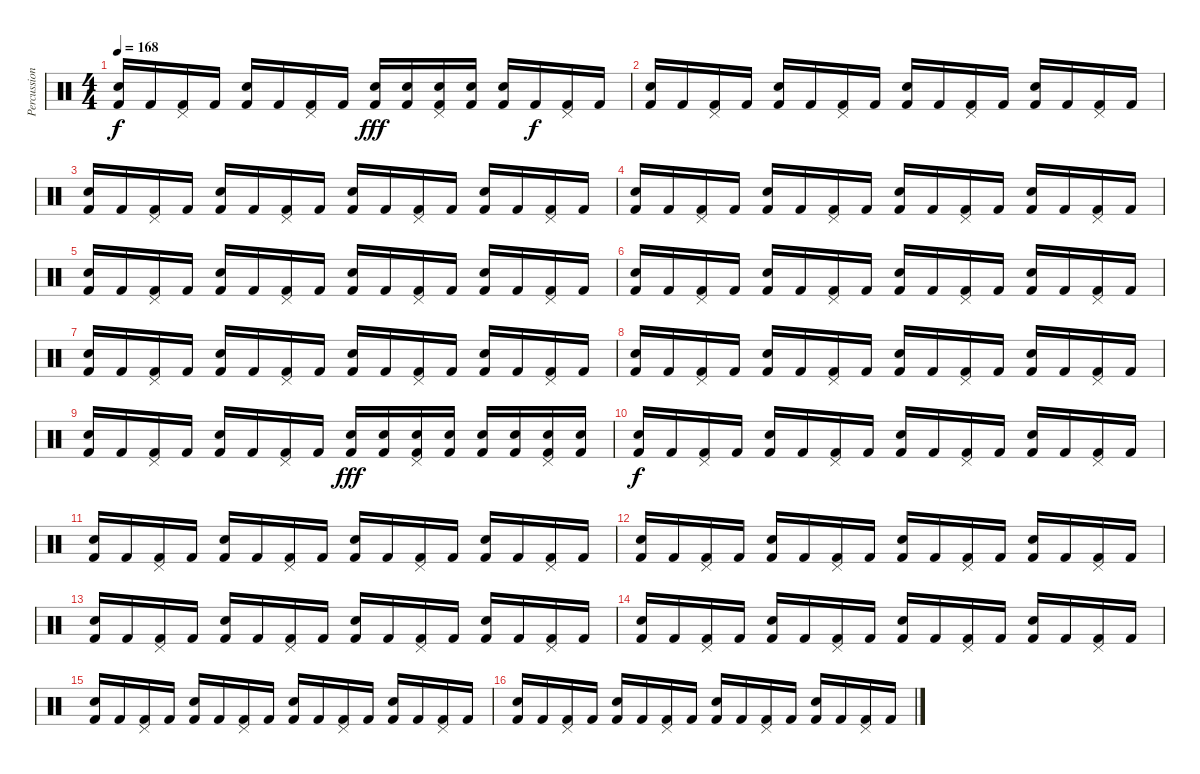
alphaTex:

\track ("Percussion" "Percussion") {instrument percussion}
\staff {score}
\articulation defaults
\ts (4 4)
\tempo 168
\clef neutral
\ks c
("Electric Snare (hit)" "Kick (hit) 2").16{dy f} "Kick (hit) 2".16 ("Pedal Hi-Hat (hit)" "Kick (hit) 2").16 "Kick (hit) 2".16 ("Electric Snare (hit)" "Kick (hit) 2").16 "Kick (hit) 2".16 ("Pedal Hi-Hat (hit)" "Kick (hit) 2").16 "Kick (hit) 2".16 ("Electric Snare (hit)" "Kick (hit) 2").16{dy fff} ("Electric Snare (hit)" "Kick (hit) 2").16 ("Pedal Hi-Hat (hit)" "Electric Snare (hit)" "Kick (hit) 2").16 ("Electric Snare (hit)" "Kick (hit) 2").16 ("Electric Snare (hit)" "Kick (hit) 2").16 "Kick (hit) 2".16{dy f} ("Pedal Hi-Hat (hit)" "Kick (hit) 2").16 "Kick (hit) 2".16 |
("Electric Snare (hit)" "Kick (hit) 2").16 "Kick (hit) 2".16 ("Pedal Hi-Hat (hit)" "Kick (hit) 2").16 "Kick (hit) 2".16 ("Electric Snare (hit)" "Kick (hit) 2").16 "Kick (hit) 2".16 ("Pedal Hi-Hat (hit)" "Kick (hit) 2").16 "Kick (hit) 2".16 ("Electric Snare (hit)" "Kick (hit) 2").16 "Kick (hit) 2".16 ("Pedal Hi-Hat (hit)" "Kick (hit) 2").16 "Kick (hit) 2".16 ("Electric Snare (hit)" "Kick (hit) 2").16 "Kick (hit) 2".16 ("Pedal Hi-Hat (hit)" "Kick (hit) 2").16 "Kick (hit) 2".16 |
("Electric Snare (hit)" "Kick (hit) 2").16 "Kick (hit) 2".16 ("Pedal Hi-Hat (hit)" "Kick (hit) 2").16 "Kick (hit) 2".16 ("Electric Snare (hit)" "Kick (hit) 2").16 "Kick (hit) 2".16 ("Pedal Hi-Hat (hit)" "Kick (hit) 2").16 "Kick (hit) 2".16 ("Electric Snare (hit)" "Kick (hit) 2").16 "Kick (hit) 2".16 ("Pedal Hi-Hat (hit)" "Kick (hit) 2").16 "Kick (hit) 2".16 ("Electric Snare (hit)" "Kick (hit) 2").16 "Kick (hit) 2".16 ("Pedal Hi-Hat (hit)" "Kick (hit) 2").16 "Kick (hit) 2".16 |
("Electric Snare (hit)" "Kick (hit) 2").16 "Kick (hit) 2".16 ("Pedal Hi-Hat (hit)" "Kick (hit) 2").16 "Kick (hit) 2".16 ("Electric Snare (hit)" "Kick (hit) 2").16 "Kick (hit) 2".16 ("Pedal Hi-Hat (hit)" "Kick (hit) 2").16 "Kick (hit) 2".16 ("Electric Snare (hit)" "Kick (hit) 2").16 "Kick (hit) 2".16 ("Pedal Hi-Hat (hit)" "Kick (hit) 2").16 "Kick (hit) 2".16 ("Electric Snare (hit)" "Kick (hit) 2").16 "Kick (hit) 2".16 ("Pedal Hi-Hat (hit)" "Kick (hit) 2").16 "Kick (hit) 2".16 |
("Electric Snare (hit)" "Kick (hit) 2").16 "Kick (hit) 2".16 ("Pedal Hi-Hat (hit)" "Kick (hit) 2").16 "Kick (hit) 2".16 ("Electric Snare (hit)" "Kick (hit) 2").16 "Kick (hit) 2".16 ("Pedal Hi-Hat (hit)" "Kick (hit) 2").16 "Kick (hit) 2".16 ("Electric Snare (hit)" "Kick (hit) 2").16 "Kick (hit) 2".16 ("Pedal Hi-Hat (hit)" "Kick (hit) 2").16 "Kick (hit) 2".16 ("Electric Snare (hit)" "Kick (hit) 2").16 "Kick (hit) 2".16 ("Pedal Hi-Hat (hit)" "Kick (hit) 2").16 "Kick (hit) 2".16 |
("Electric Snare (hit)" "Kick (hit) 2").16 "Kick (hit) 2".16 ("Pedal Hi-Hat (hit)" "Kick (hit) 2").16 "Kick (hit) 2".16 ("Electric Snare (hit)" "Kick (hit) 2").16 "Kick (hit) 2".16 ("Pedal Hi-Hat (hit)" "Kick (hit) 2").16 "Kick (hit) 2".16 ("Electric Snare (hit)" "Kick (hit) 2").16 "Kick (hit) 2".16 ("Pedal Hi-Hat (hit)" "Kick (hit) 2").16 "Kick (hit) 2".16 ("Electric Snare (hit)" "Kick (hit) 2").16 "Kick (hit) 2".16 ("Pedal Hi-Hat (hit)" "Kick (hit) 2").16 "Kick (hit) 2".16 |
("Electric Snare (hit)" "Kick (hit) 2").16 "Kick (hit) 2".16 ("Pedal Hi-Hat (hit)" "Kick (hit) 2").16 "Kick (hit) 2".16 ("Electric Snare (hit)" "Kick (hit) 2").16 "Kick (hit) 2".16 ("Pedal Hi-Hat (hit)" "Kick (hit) 2").16 "Kick (hit) 2".16 ("Electric Snare (hit)" "Kick (hit) 2").16 "Kick (hit) 2".16 ("Pedal Hi-Hat (hit)" "Kick (hit) 2").16 "Kick (hit) 2".16 ("Electric Snare (hit)" "Kick (hit) 2").16 "Kick (hit) 2".16 ("Pedal Hi-Hat (hit)" "Kick (hit) 2").16 "Kick (hit) 2".16 |
("Electric Snare (hit)" "Kick (hit) 2").16 "Kick (hit) 2".16 ("Pedal Hi-Hat (hit)" "Kick (hit) 2").16 "Kick (hit) 2".16 ("Electric Snare (hit)" "Kick (hit) 2").16 "Kick (hit) 2".16 ("Pedal Hi-Hat (hit)" "Kick (hit) 2").16 "Kick (hit) 2".16 ("Electric Snare (hit)" "Kick (hit) 2").16 "Kick (hit) 2".16 ("Pedal Hi-Hat (hit)" "Kick (hit) 2").16 "Kick (hit) 2".16 ("Electric Snare (hit)" "Kick (hit) 2").16 "Kick (hit) 2".16 ("Pedal Hi-Hat (hit)" "Kick (hit) 2").16 "Kick (hit) 2".16 |
("Electric Snare (hit)" "Kick (hit) 2").16 "Kick (hit) 2".16 ("Pedal Hi-Hat (hit)" "Kick (hit) 2").16 "Kick (hit) 2".16 ("Electric Snare (hit)" "Kick (hit) 2").16 "Kick (hit) 2".16 ("Pedal Hi-Hat (hit)" "Kick (hit) 2").16 "Kick (hit) 2".16 ("Electric Snare (hit)" "Kick (hit) 2").16{dy fff} ("Electric Snare (hit)" "Kick (hit) 2").16 ("Pedal Hi-Hat (hit)" "Electric Snare (hit)" "Kick (hit) 2").16 ("Electric Snare (hit)" "Kick (hit) 2").16 ("Electric Snare (hit)" "Kick (hit) 2").16 ("Electric Snare (hit)" "Kick (hit) 2").16 ("Pedal Hi-Hat (hit)" "Electric Snare (hit)" "Kick (hit) 2").16 ("Electric Snare (hit)" "Kick (hit) 2").16 |
("Electric Snare (hit)" "Kick (hit) 2").16{dy f} "Kick (hit) 2".16 ("Pedal Hi-Hat (hit)" "Kick (hit) 2").16 "Kick (hit) 2".16 ("Electric Snare (hit)" "Kick (hit) 2").16 "Kick (hit) 2".16 ("Pedal Hi-Hat (hit)" "Kick (hit) 2").16 "Kick (hit) 2".16 ("Electric Snare (hit)" "Kick (hit) 2").16 "Kick (hit) 2".16 ("Pedal Hi-Hat (hit)" "Kick (hit) 2").16 "Kick (hit) 2".16 ("Electric Snare (hit)" "Kick (hit) 2").16 "Kick (hit) 2".16 ("Pedal Hi-Hat (hit)" "Kick (hit) 2").16 "Kick (hit) 2".16 |
("Electric Snare (hit)" "Kick (hit) 2").16 "Kick (hit) 2".16 ("Pedal Hi-Hat (hit)" "Kick (hit) 2").16 "Kick (hit) 2".16 ("Electric Snare (hit)" "Kick (hit) 2").16 "Kick (hit) 2".16 ("Pedal Hi-Hat (hit)" "Kick (hit) 2").16 "Kick (hit) 2".16 ("Electric Snare (hit)" "Kick (hit) 2").16 "Kick (hit) 2".16 ("Pedal Hi-Hat (hit)" "Kick (hit) 2").16 "Kick (hit) 2".16 ("Electric Snare (hit)" "Kick (hit) 2").16 "Kick (hit) 2".16 ("Pedal Hi-Hat (hit)" "Kick (hit) 2").16 "Kick (hit) 2".16 |
("Electric Snare (hit)" "Kick (hit) 2").16 "Kick (hit) 2".16 ("Pedal Hi-Hat (hit)" "Kick (hit) 2").16 "Kick (hit) 2".16 ("Electric Snare (hit)" "Kick (hit) 2").16 "Kick (hit) 2".16 ("Pedal Hi-Hat (hit)" "Kick (hit) 2").16 "Kick (hit) 2".16 ("Electric Snare (hit)" "Kick (hit) 2").16 "Kick (hit) 2".16 ("Pedal Hi-Hat (hit)" "Kick (hit) 2").16 "Kick (hit) 2".16 ("Electric Snare (hit)" "Kick (hit) 2").16 "Kick (hit) 2".16 ("Pedal Hi-Hat (hit)" "Kick (hit) 2").16 "Kick (hit) 2".16 |
("Electric Snare (hit)" "Kick (hit) 2").16 "Kick (hit) 2".16 ("Pedal Hi-Hat (hit)" "Kick (hit) 2").16 "Kick (hit) 2".16 ("Electric Snare (hit)" "Kick (hit) 2").16 "Kick (hit) 2".16 ("Pedal Hi-Hat (hit)" "Kick (hit) 2").16 "Kick (hit) 2".16 ("Electric Snare (hit)" "Kick (hit) 2").16 "Kick (hit) 2".16 ("Pedal Hi-Hat (hit)" "Kick (hit) 2").16 "Kick (hit) 2".16 ("Electric Snare (hit)" "Kick (hit) 2").16 "Kick (hit) 2".16 ("Pedal Hi-Hat (hit)" "Kick (hit) 2").16 "Kick (hit) 2".16 |
("Electric Snare (hit)" "Kick (hit) 2").16 "Kick (hit) 2".16 ("Pedal Hi-Hat (hit)" "Kick (hit) 2").16 "Kick (hit) 2".16 ("Electric Snare (hit)" "Kick (hit) 2").16 "Kick (hit) 2".16 ("Pedal Hi-Hat (hit)" "Kick (hit) 2").16 "Kick (hit) 2".16 ("Electric Snare (hit)" "Kick (hit) 2").16 "Kick (hit) 2".16 ("Pedal Hi-Hat (hit)" "Kick (hit) 2").16 "Kick (hit) 2".16 ("Electric Snare (hit)" "Kick (hit) 2").16 "Kick (hit) 2".16 ("Pedal Hi-Hat (hit)" "Kick (hit) 2").16 "Kick (hit) 2".16 |
("Electric Snare (hit)" "Kick (hit) 2").16 "Kick (hit) 2".16 ("Pedal Hi-Hat (hit)" "Kick (hit) 2").16 "Kick (hit) 2".16 ("Electric Snare (hit)" "Kick (hit) 2").16 "Kick (hit) 2".16 ("Pedal Hi-Hat (hit)" "Kick (hit) 2").16 "Kick (hit) 2".16 ("Electric Snare (hit)" "Kick (hit) 2").16 "Kick (hit) 2".16 ("Pedal Hi-Hat (hit)" "Kick (hit) 2").16 "Kick (hit) 2".16 ("Electric Snare (hit)" "Kick (hit) 2").16 "Kick (hit) 2".16 ("Pedal Hi-Hat (hit)" "Kick (hit) 2").16 "Kick (hit) 2".16 |
("Electric Snare (hit)" "Kick (hit) 2").16 "Kick (hit) 2".16 ("Pedal Hi-Hat (hit)" "Kick (hit) 2").16 "Kick (hit) 2".16 ("Electric Snare (hit)" "Kick (hit) 2").16 "Kick (hit) 2".16 ("Pedal Hi-Hat (hit)" "Kick (hit) 2").16 "Kick (hit) 2".16 ("Electric Snare (hit)" "Kick (hit) 2").16 "Kick (hit) 2".16 ("Pedal Hi-Hat (hit)" "Kick (hit) 2").16 "Kick (hit) 2".16 ("Electric Snare (hit)" "Kick (hit) 2").16 "Kick (hit) 2".16 ("Pedal Hi-Hat (hit)" "Kick (hit) 2").16 "Kick (hit) 2".16
